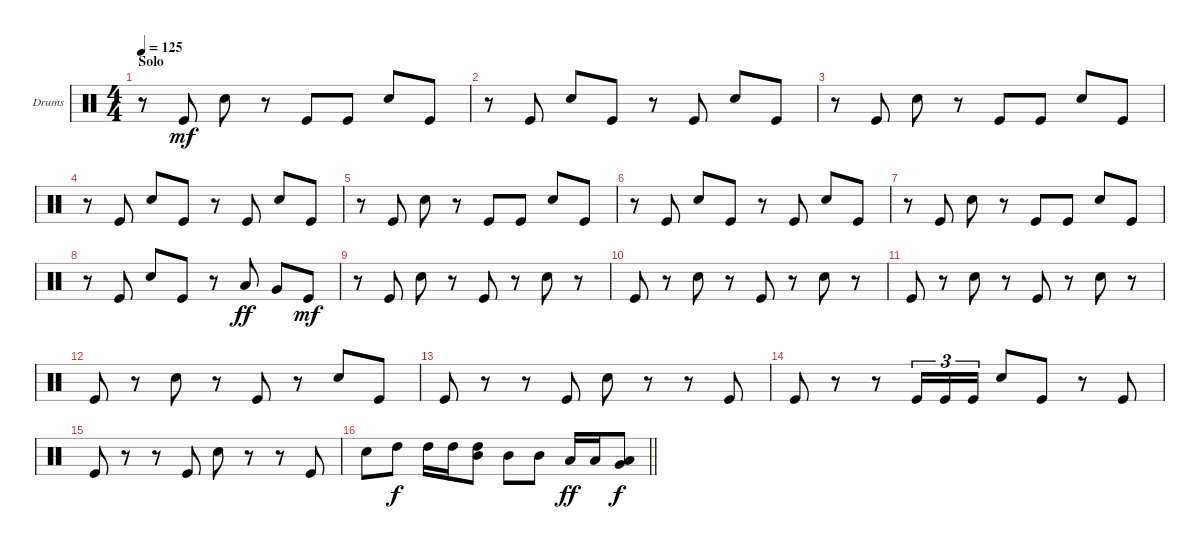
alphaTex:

\bracketExtendMode groupsimilarinstruments
\firstSystemTrackNameOrientation horizontal
\otherSystemsTrackNameOrientation horizontal
\track ("Nick Menza" "Drums") {instrument percussion}
\staff {score}
\articulation defaults
\ts (4 4)
\section ("" "Solo")
\tempo 125
\clef neutral
\ks c
r.8{dy mf} "Kick (hit)".8 "Snare (hit) 2".8 r.8 "Kick (hit)".8 "Kick (hit)".8 "Snare (hit) 2".8 "Kick (hit)".8 |
r.8 "Kick (hit)".8 "Snare (hit) 2".8 "Kick (hit)".8 r.8 "Kick (hit)".8 "Snare (hit) 2".8 "Kick (hit)".8 |
r.8 "Kick (hit)".8 "Snare (hit) 2".8 r.8 "Kick (hit)".8 "Kick (hit)".8 "Snare (hit) 2".8 "Kick (hit)".8 |
r.8 "Kick (hit)".8 "Snare (hit) 2".8 "Kick (hit)".8 r.8 "Kick (hit)".8 "Snare (hit) 2".8 "Kick (hit)".8 |
r.8 "Kick (hit)".8 "Snare (hit) 2".8 r.8 "Kick (hit)".8 "Kick (hit)".8 "Snare (hit) 2".8 "Kick (hit)".8 |
r.8 "Kick (hit)".8 "Snare (hit) 2".8 "Kick (hit)".8 r.8 "Kick (hit)".8 "Snare (hit) 2".8 "Kick (hit)".8 |
r.8 "Kick (hit)".8 "Snare (hit) 2".8 r.8 "Kick (hit)".8 "Kick (hit)".8 "Snare (hit) 2".8 "Kick (hit)".8 |
r.8 "Kick (hit)".8 "Snare (hit) 2".8 "Kick (hit)".8 r.8 "Low Tom (hit)".8{dy ff} "Very Low Tom (hit)".8 "Kick (hit)".8{dy mf} |
r.8 "Kick (hit)".8 "Snare (hit) 2".8 r.8 "Kick (hit)".8 r.8 "Snare (hit) 2".8 r.8 |
"Kick (hit)".8 r.8 "Snare (hit) 2".8 r.8 "Kick (hit)".8 r.8 "Snare (hit) 2".8 r.8 |
"Kick (hit)".8 r.8 "Snare (hit) 2".8 r.8 "Kick (hit)".8 r.8 "Snare (hit) 2".8 r.8 |
"Kick (hit)".8 r.8 "Snare (hit) 2".8 r.8 "Kick (hit)".8 r.8 "Snare (hit) 2".8 "Kick (hit)".8 |
"Kick (hit)".8 r.8 r.8 "Kick (hit)".8 "Snare (hit) 2".8 r.8 r.8 "Kick (hit)".8 |
"Kick (hit)".8 r.8 r.8 "Kick (hit)".16{tu (3 2)} "Kick (hit)".16{tu (3 2)} "Kick (hit)".16{tu (3 2)} "Snare (hit) 2".8 "Kick (hit)".8 r.8 "Kick (hit)".8 |
"Kick (hit)".8 r.8 r.8 "Kick (hit)".8 "Snare (hit) 2".8 r.8 r.8 "Kick (hit)".8 |
\barLineRight lightlight "Snare (hit) 2".8 "High Tom (hit)".8{dy f} "High Tom (hit)".16 "High Tom (hit)".16
("High Tom (hit)" "Mid Tom (hit)").8 "Mid Tom (hit)".8 "Mid Tom (hit)".8 "Low Tom (hit)".16{dy ff} "Low Tom (hit)".16 ("Low Tom (hit)" "Very Low Tom (hit)").8{dy f}
